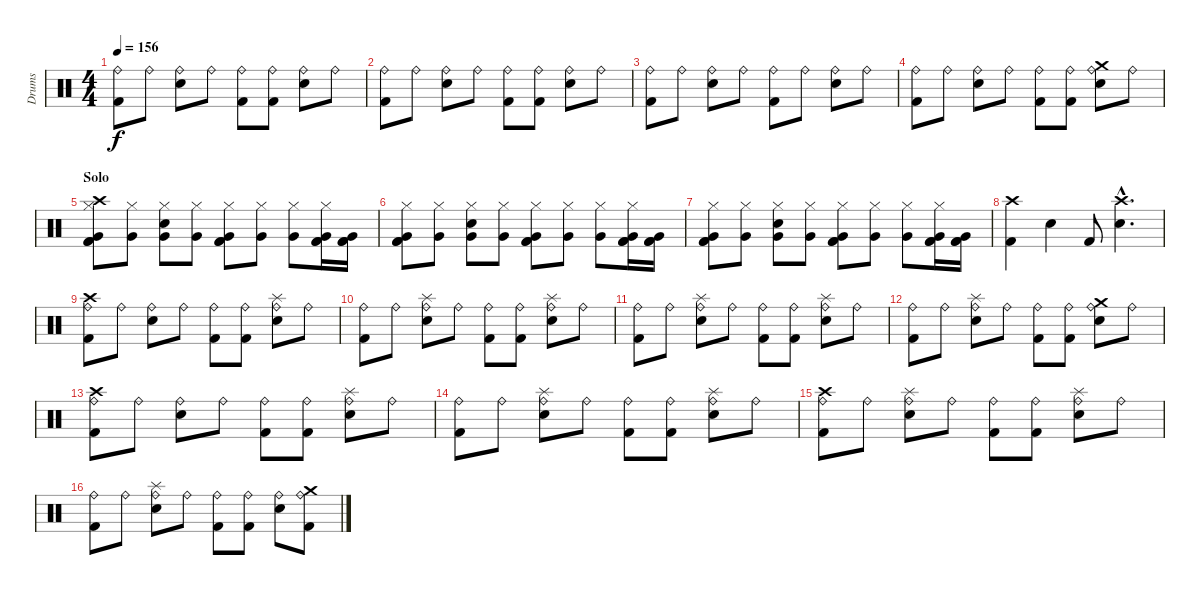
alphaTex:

\track ("Drums" "Drums") {instrument percussion}
\staff {score}
\articulation defaults
\ts (4 4)
\tempo 156
\clef neutral
\ks c
("Ride (bell)" "Kick (hit) 2").8{dy f} "Ride (bell)".8 ("Ride (bell)" "Electric Snare (hit)").8 "Ride (bell)".8 ("Ride (bell)" "Kick (hit) 2").8 ("Ride (bell)" "Kick (hit) 2").8 ("Ride (bell)" "Electric Snare (hit)").8 "Ride (bell)".8 |
("Ride (bell)" "Kick (hit) 2").8 "Ride (bell)".8 ("Ride (bell)" "Electric Snare (hit)").8 "Ride (bell)".8 ("Ride (bell)" "Kick (hit) 2").8 ("Ride (bell)" "Kick (hit) 2").8 ("Ride (bell)" "Electric Snare (hit)").8 "Ride (bell)".8 |
("Ride (bell)" "Kick (hit) 2").8 "Ride (bell)".8 ("Ride (bell)" "Electric Snare (hit)").8 "Ride (bell)".8 ("Ride (bell)" "Kick (hit) 2").8 "Ride (bell)".8 ("Ride (bell)" "Electric Snare (hit)").8 "Ride (bell)".8 |
("Ride (bell)" "Kick (hit) 2").8 "Ride (bell)".8 ("Ride (bell)" "Electric Snare (hit)").8 "Ride (bell)".8 ("Ride (bell)" "Kick (hit) 2").8 ("Ride (bell)" "Kick (hit) 2").8 ("Ride (bell)" "Electric Snare (hit)" "Crash medium (hit)").8 "Ride (bell)".8 |
\section ("" "Solo")
("Very Low Tom (hit)" "Hi-Hat (closed)" "Kick (hit) 2" "Kick (hit) 2" "Crash high (hit)").8 ("Very Low Tom (hit)" "Hi-Hat (closed)").8 ("Very Low Tom (hit)" "Hi-Hat (closed)" "Electric Snare (hit)").8 ("Very Low Tom (hit)" "Hi-Hat (closed)").8 ("Very Low Tom (hit)" "Hi-Hat (closed)" "Kick (hit) 2" "Kick (hit) 2").8 ("Very Low Tom (hit)" "Hi-Hat (closed)").8 ("Very Low Tom (hit)" "Hi-Hat (closed)").8 ("Very Low Tom (hit)" "Hi-Hat (closed)" "Kick (hit) 2" "Kick (hit) 2").16 ("Very Low Tom (hit)" "Kick (hit) 2" "Kick (hit) 2").16 |
("Very Low Tom (hit)" "Hi-Hat (closed)" "Kick (hit) 2" "Kick (hit) 2").8 ("Very Low Tom (hit)" "Hi-Hat (closed)").8 ("Very Low Tom (hit)" "Hi-Hat (closed)" "Electric Snare (hit)").8 ("Very Low Tom (hit)" "Hi-Hat (closed)").8 ("Very Low Tom (hit)" "Hi-Hat (closed)" "Kick (hit) 2" "Kick (hit) 2").8 ("Very Low Tom (hit)" "Hi-Hat (closed)").8 ("Very Low Tom (hit)" "Hi-Hat (closed)").8 ("Very Low Tom (hit)" "Hi-Hat (closed)" "Kick (hit) 2" "Kick (hit) 2").16 ("Very Low Tom (hit)" "Kick (hit) 2" "Kick (hit) 2").16 |
("Very Low Tom (hit)" "Hi-Hat (closed)" "Kick (hit) 2" "Kick (hit) 2").8 ("Very Low Tom (hit)" "Hi-Hat (closed)").8 ("Very Low Tom (hit)" "Hi-Hat (closed)" "Electric Snare (hit)").8 ("Very Low Tom (hit)" "Hi-Hat (closed)").8 ("Very Low Tom (hit)" "Hi-Hat (closed)" "Kick (hit) 2" "Kick (hit) 2").8 ("Very Low Tom (hit)" "Hi-Hat (closed)").8 ("Very Low Tom (hit)" "Hi-Hat (closed)").8 ("Very Low Tom (hit)" "Hi-Hat (closed)" "Kick (hit) 2" "Kick (hit) 2").16 ("Very Low Tom (hit)" "Kick (hit) 2" "Kick (hit) 2").16 |
("Kick (hit) 2" "Crash high (hit)").4 "Electric Snare (hit)".4 "Kick (hit) 2".8 ("Electric Snare (hit)"{hac} "Crash high (hit)"{hac}).4{d} |
("Ride (bell)" "Kick (hit) 2" "Crash high (hit)").8 "Ride (bell)".8 ("Ride (bell)" "Electric Snare (hit)").8 "Ride (bell)".8 ("Ride (bell)" "Kick (hit) 2").8 ("Ride (bell)" "Kick (hit) 2").8 ("Ride (bell)" "Electric Snare (hit)" "Splash (hit)").8 "Ride (bell)".8 |
("Ride (bell)" "Kick (hit) 2").8 "Ride (bell)".8 ("Ride (bell)" "Electric Snare (hit)" "Splash (hit)").8 "Ride (bell)".8 ("Ride (bell)" "Kick (hit) 2").8 ("Ride (bell)" "Kick (hit) 2").8 ("Ride (bell)" "Electric Snare (hit)" "Splash (hit)").8 "Ride (bell)".8 |
("Ride (bell)" "Kick (hit) 2").8 "Ride (bell)".8 ("Ride (bell)" "Electric Snare (hit)" "Splash (hit)").8 "Ride (bell)".8 ("Ride (bell)" "Kick (hit) 2").8 ("Ride (bell)" "Kick (hit) 2").8 ("Ride (bell)" "Electric Snare (hit)" "Splash (hit)").8 "Ride (bell)".8 |
("Ride (bell)" "Kick (hit) 2").8 "Ride (bell)".8 ("Ride (bell)" "Electric Snare (hit)" "Splash (hit)").8 "Ride (bell)".8 ("Ride (bell)" "Kick (hit) 2").8 ("Ride (bell)" "Kick (hit) 2").8 ("Ride (bell)" "Electric Snare (hit)" "Crash medium (hit)").8 "Ride (bell)".8 |
("Ride (bell)" "Kick (hit) 2" "Crash high (hit)").8 "Ride (bell)".8 ("Ride (bell)" "Electric Snare (hit)").8 "Ride (bell)".8 ("Ride (bell)" "Kick (hit) 2").8 ("Ride (bell)" "Kick (hit) 2").8 ("Ride (bell)" "Electric Snare (hit)" "Splash (hit)").8 "Ride (bell)".8 |
("Ride (bell)" "Kick (hit) 2").8 "Ride (bell)".8 ("Ride (bell)" "Electric Snare (hit)" "Splash (hit)").8 "Ride (bell)".8 ("Ride (bell)" "Kick (hit) 2").8 ("Ride (bell)" "Kick (hit) 2").8 ("Ride (bell)" "Electric Snare (hit)" "Splash (hit)").8 "Ride (bell)".8 |
("Ride (bell)" "Kick (hit) 2" "Crash high (hit)").8 "Ride (bell)".8 ("Ride (bell)" "Electric Snare (hit)" "Splash (hit)").8 "Ride (bell)".8 ("Ride (bell)" "Kick (hit) 2").8 ("Ride (bell)" "Kick (hit) 2").8 ("Ride (bell)" "Electric Snare (hit)" "Splash (hit)").8 "Ride (bell)".8 |
("Ride (bell)" "Kick (hit) 2").8 "Ride (bell)".8 ("Ride (bell)" "Electric Snare (hit)" "Splash (hit)").8 "Ride (bell)".8 ("Ride (bell)" "Kick (hit) 2").8 ("Ride (bell)" "Kick (hit) 2").8 ("Ride (bell)" "Electric Snare (hit)").8 ("Ride (bell)" "Kick (hit) 2" "Crash medium (hit)").8
